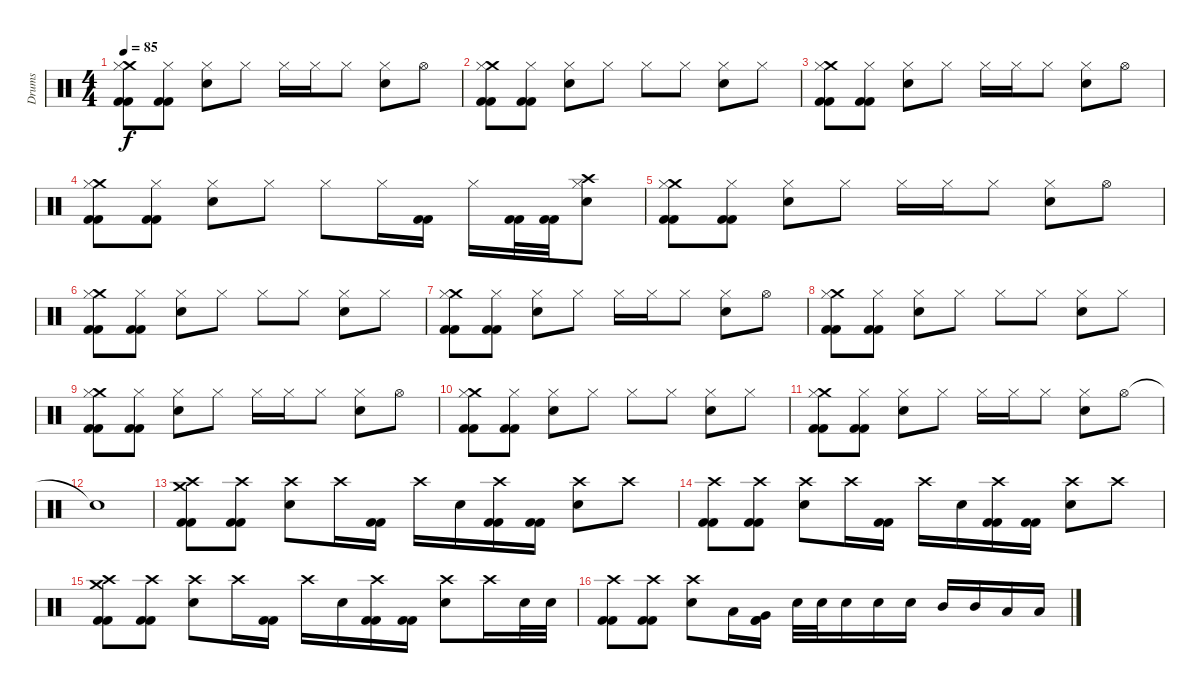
\track ("Drums" "Drums") {instrument percussion}
\staff {score}
\articulation defaults
\ts (4 4)
\tempo 85
\clef neutral
\ks c
("Crash medium (hit)" "Hi-Hat (closed)" "Kick (hit) 2" "Kick (hit) 2").8{dy f} ("Hi-Hat (closed)" "Kick (hit) 2" "Kick (hit) 2").8 ("Hi-Hat (closed)" "Electric Snare (hit)").8 "Hi-Hat (closed)".8 "Hi-Hat (closed)".16 "Hi-Hat (closed)".16 "Hi-Hat (closed)".8 ("Hi-Hat (closed)" "Electric Snare (hit)").8 "Hi-Hat (open)".8 |
("Crash medium (hit)" "Hi-Hat (closed)" "Kick (hit) 2" "Kick (hit) 2").8 ("Hi-Hat (closed)" "Kick (hit) 2" "Kick (hit) 2").8 ("Hi-Hat (closed)" "Electric Snare (hit)").8 "Hi-Hat (closed)".8 "Hi-Hat (closed)".8 "Hi-Hat (closed)".8 ("Hi-Hat (closed)" "Electric Snare (hit)").8 "Hi-Hat (closed)".8 |
("Crash medium (hit)" "Hi-Hat (closed)" "Kick (hit) 2" "Kick (hit) 2").8 ("Hi-Hat (closed)" "Kick (hit) 2" "Kick (hit) 2").8 ("Hi-Hat (closed)" "Electric Snare (hit)").8 "Hi-Hat (closed)".8 "Hi-Hat (closed)".16 "Hi-Hat (closed)".16 "Hi-Hat (closed)".8 ("Hi-Hat (closed)" "Electric Snare (hit)").8 "Hi-Hat (open)".8 |
("Crash medium (hit)" "Hi-Hat (closed)" "Kick (hit) 2" "Kick (hit) 2").8 ("Hi-Hat (closed)" "Kick (hit) 2" "Kick (hit) 2").8 ("Hi-Hat (closed)" "Electric Snare (hit)").8 "Hi-Hat (closed)".8 "Hi-Hat (closed)".8 "Hi-Hat (closed)".16 ("Kick (hit) 2" "Kick (hit) 2").16 "Hi-Hat (closed)".16 ("Kick (hit) 2" "Kick (hit) 2").32 ("Kick (hit) 2" "Kick (hit) 2").32 ("Crash high (hit)" "Hi-Hat (closed)" "Electric Snare (hit)").8 |
("Crash medium (hit)" "Hi-Hat (closed)" "Kick (hit) 2" "Kick (hit) 2").8 ("Hi-Hat (closed)" "Kick (hit) 2" "Kick (hit) 2").8 ("Hi-Hat (closed)" "Electric Snare (hit)").8 "Hi-Hat (closed)".8 "Hi-Hat (closed)".16 "Hi-Hat (closed)".16 "Hi-Hat (closed)".8 ("Hi-Hat (closed)" "Electric Snare (hit)").8 "Hi-Hat (open)".8 |
("Crash medium (hit)" "Hi-Hat (closed)" "Kick (hit) 2" "Kick (hit) 2").8 ("Hi-Hat (closed)" "Kick (hit) 2" "Kick (hit) 2").8 ("Hi-Hat (closed)" "Electric Snare (hit)").8 "Hi-Hat (closed)".8 "Hi-Hat (closed)".8 "Hi-Hat (closed)".8 ("Hi-Hat (closed)" "Electric Snare (hit)").8 "Hi-Hat (closed)".8 |
("Crash medium (hit)" "Hi-Hat (closed)" "Kick (hit) 2" "Kick (hit) 2").8 ("Hi-Hat (closed)" "Kick (hit) 2" "Kick (hit) 2").8 ("Hi-Hat (closed)" "Electric Snare (hit)").8 "Hi-Hat (closed)".8 "Hi-Hat (closed)".16 "Hi-Hat (closed)".16 "Hi-Hat (closed)".8 ("Hi-Hat (closed)" "Electric Snare (hit)").8 "Hi-Hat (open)".8 |
("Crash medium (hit)" "Hi-Hat (closed)" "Kick (hit) 2" "Kick (hit) 2").8 ("Hi-Hat (closed)" "Kick (hit) 2" "Kick (hit) 2").8 ("Hi-Hat (closed)" "Electric Snare (hit)").8 "Hi-Hat (closed)".8 "Hi-Hat (closed)".8 "Hi-Hat (closed)".8 ("Hi-Hat (closed)" "Electric Snare (hit)").8 "Hi-Hat (closed)".8 |
("Crash medium (hit)" "Hi-Hat (closed)" "Kick (hit) 2" "Kick (hit) 2").8 ("Hi-Hat (closed)" "Kick (hit) 2" "Kick (hit) 2").8 ("Hi-Hat (closed)" "Electric Snare (hit)").8 "Hi-Hat (closed)".8 "Hi-Hat (closed)".16 "Hi-Hat (closed)".16 "Hi-Hat (closed)".8 ("Hi-Hat (closed)" "Electric Snare (hit)").8 "Hi-Hat (open)".8 |
("Crash medium (hit)" "Hi-Hat (closed)" "Kick (hit) 2" "Kick (hit) 2").8 ("Hi-Hat (closed)" "Kick (hit) 2" "Kick (hit) 2").8 ("Hi-Hat (closed)" "Electric Snare (hit)").8 "Hi-Hat (closed)".8 "Hi-Hat (closed)".8 "Hi-Hat (closed)".8 ("Hi-Hat (closed)" "Electric Snare (hit)").8 "Hi-Hat (closed)".8 |
("Crash medium (hit)" "Hi-Hat (closed)" "Kick (hit) 2" "Kick (hit) 2").8 ("Hi-Hat (closed)" "Kick (hit) 2" "Kick (hit) 2").8 ("Hi-Hat (closed)" "Electric Snare (hit)").8 "Hi-Hat (closed)".8 "Hi-Hat (closed)".16 "Hi-Hat (closed)".16 "Hi-Hat (closed)".8 ("Hi-Hat (closed)" "Electric Snare (hit)").8 "Hi-Hat (open)".8 |
"Snare (hit)"{t}.1 |
("Crash medium (hit)" "Crash high (hit)" "Kick (hit) 2" "Kick (hit) 2").8 ("Crash high (hit)" "Kick (hit) 2" "Kick (hit) 2").8 ("Crash high (hit)" "Electric Snare (hit)").8 "Crash high (hit)".16 ("Kick (hit) 2" "Kick (hit) 2").16 "Crash high (hit)".16 "Electric Snare (hit)".16 ("Crash high (hit)" "Kick (hit) 2" "Kick (hit) 2").16 ("Kick (hit) 2" "Kick (hit) 2").16 ("Crash high (hit)" "Electric Snare (hit)").8 "Crash high (hit)".8 |
("Crash high (hit)" "Kick (hit) 2" "Kick (hit) 2").8 ("Crash high (hit)" "Kick (hit) 2" "Kick (hit) 2").8 ("Crash high (hit)" "Electric Snare (hit)").8 "Crash high (hit)".16 ("Kick (hit) 2" "Kick (hit) 2").16 "Crash high (hit)".16 "Electric Snare (hit)".16 ("Crash high (hit)" "Kick (hit) 2" "Kick (hit) 2").16 ("Kick (hit) 2" "Kick (hit) 2").16 ("Crash high (hit)" "Electric Snare (hit)").8 "Crash high (hit)".8 |
("Crash medium (hit)" "Crash high (hit)" "Kick (hit) 2" "Kick (hit) 2").8 ("Crash high (hit)" "Kick (hit) 2" "Kick (hit) 2").8 ("Crash high (hit)" "Electric Snare (hit)").8 "Crash high (hit)".16 ("Kick (hit) 2" "Kick (hit) 2").16 "Crash high (hit)".16 "Electric Snare (hit)".16 ("Crash high (hit)" "Kick (hit) 2" "Kick (hit) 2").16 ("Kick (hit) 2" "Kick (hit) 2").16 ("Crash high (hit)" "Electric Snare (hit)").8 "Crash high (hit)".16 "Electric Snare (hit)".32 "Electric Snare (hit)".32 |
("Crash high (hit)" "Kick (hit) 2" "Kick (hit) 2").8 ("Crash high (hit)" "Kick (hit) 2" "Kick (hit) 2").8 ("Crash high (hit)" "Electric Snare (hit)").8 "Low Tom (hit)".16 ("Very Low Tom (hit)" "Kick (hit) 2" "Kick (hit) 2").16 "Electric Snare (hit)".32 "Electric Snare (hit)".32 "Electric Snare (hit)".16 "Electric Snare (hit)".16 "Electric Snare (hit)".16 "Mid Tom (hit)".16 "Mid Tom (hit)".16 "Low Tom (hit)".16 "Low Tom (hit)".16
